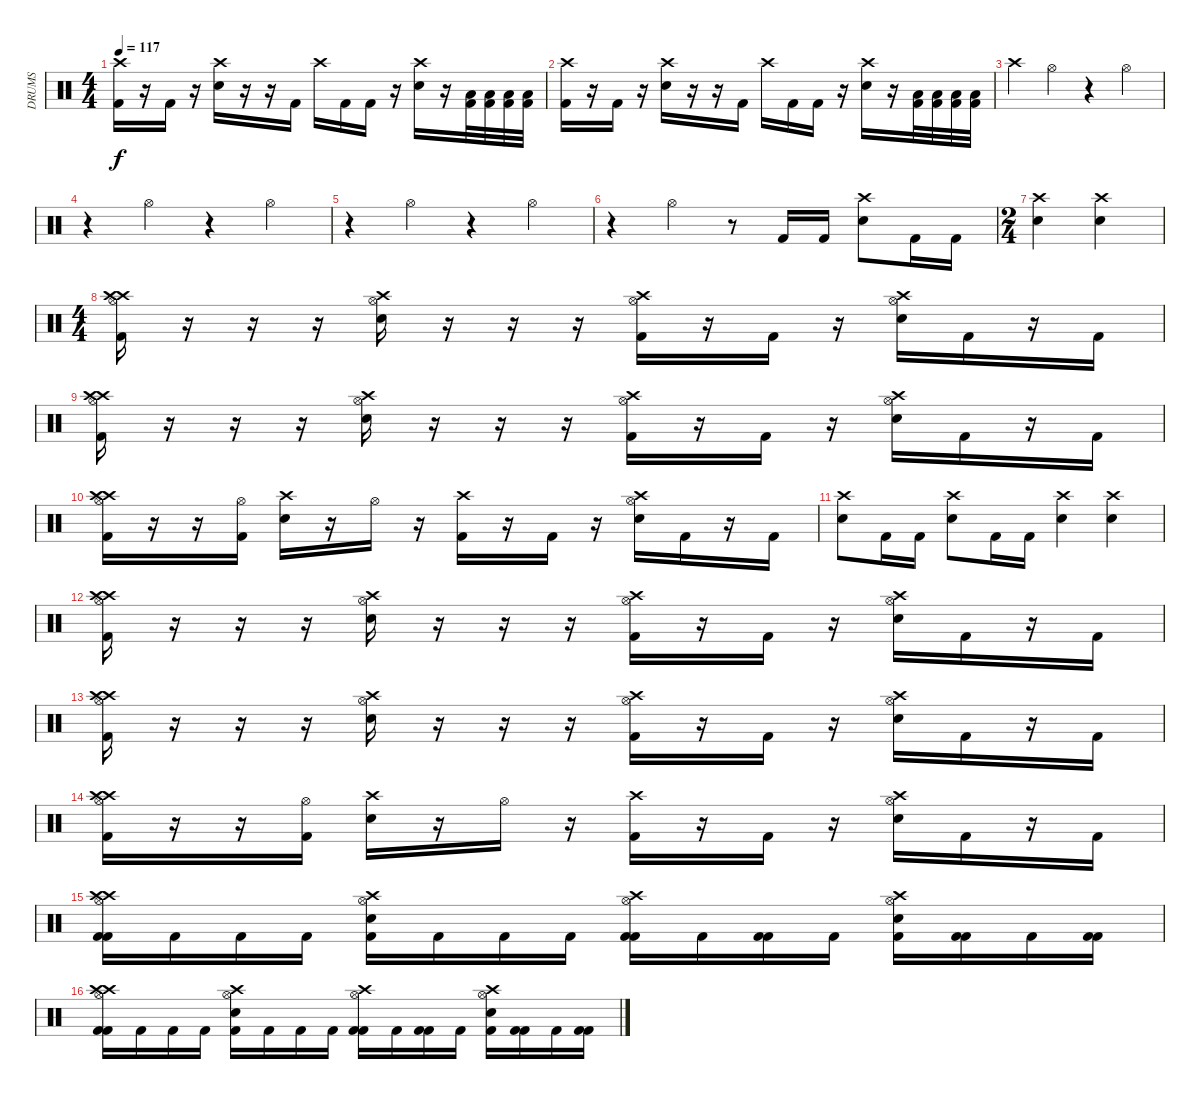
\track ("DRUMS" "DRUMS") {instrument percussion}
\staff {score}
\articulation defaults
\ts (4 4)
\tempo 117
\clef neutral
\ks c
("Crash high (hit)" "Kick (hit) 2").16{dy f} r.16 "Kick (hit) 2".16 r.16 ("Crash high (hit)" "Electric Snare (hit)").16 r.16 r.16 "Kick (hit) 2".16 "Crash high (hit)".16 "Kick (hit) 2".16 "Kick (hit) 2".16 r.16 ("Crash high (hit)" "Electric Snare (hit)").16 r.16 ("Low Tom (hit)" "Kick (hit) 2").32 ("Low Tom (hit)" "Kick (hit) 2").32 ("Low Tom (hit)" "Kick (hit) 2").32 ("Low Tom (hit)" "Kick (hit) 2").32 |
("Crash high (hit)" "Kick (hit) 2").16 r.16 "Kick (hit) 2".16 r.16 ("Crash high (hit)" "Electric Snare (hit)").16 r.16 r.16 "Kick (hit) 2".16 "Crash high (hit)".16 "Kick (hit) 2".16 "Kick (hit) 2".16 r.16 ("Crash high (hit)" "Electric Snare (hit)").16 r.16 ("Low Tom (hit)" "Kick (hit) 2").32 ("Low Tom (hit)" "Kick (hit) 2").32 ("Low Tom (hit)" "Kick (hit) 2").32 ("Low Tom (hit)" "Kick (hit) 2").32 |
"Crash high (hit)".4 "Hi-Hat (open)".4 r.4 "Hi-Hat (open)".4 |
r.4 "Hi-Hat (open)".4 r.4 "Hi-Hat (open)".4 |
r.4 "Hi-Hat (open)".4 r.4 "Hi-Hat (open)".4 |
r.4 "Hi-Hat (open)".4 r.8 "Kick (hit) 2".16 "Kick (hit) 2".16 ("Crash high (hit)" "Electric Snare (hit)").8 "Kick (hit) 2".16 "Kick (hit) 2".16 |
\ts (2 4)
("Crash high (hit)" "Electric Snare (hit)").4 ("Crash high (hit)" "Electric Snare (hit)").4 |
\ts (4 4)
("Crash high (hit)" "Kick (hit) 2" "Hi-Hat (open)" "Crash high (hit)").16 r.16 r.16 r.16 ("Crash high (hit)" "Electric Snare (hit)" "Hi-Hat (open)").16 r.16 r.16 r.16 ("Crash high (hit)" "Kick (hit) 2" "Hi-Hat (open)").16 r.16 "Kick (hit) 2".16 r.16 ("Crash high (hit)" "Electric Snare (hit)" "Hi-Hat (open)").16 "Kick (hit) 2".16 r.16 "Kick (hit) 2".16 |
("Crash high (hit)" "Kick (hit) 2" "Hi-Hat (open)" "Crash high (hit)").16 r.16 r.16 r.16 ("Crash high (hit)" "Electric Snare (hit)" "Hi-Hat (open)").16 r.16 r.16 r.16 ("Crash high (hit)" "Kick (hit) 2" "Hi-Hat (open)").16 r.16 "Kick (hit) 2".16 r.16 ("Crash high (hit)" "Electric Snare (hit)" "Hi-Hat (open)").16 "Kick (hit) 2".16 r.16 "Kick (hit) 2".16 |
("Crash high (hit)" "Kick (hit) 2" "Hi-Hat (open)" "Crash high (hit)").16 r.16 r.16 ("Kick (hit) 2" "Hi-Hat (open)").16 ("Crash high (hit)" "Electric Snare (hit)").16 r.16 "Hi-Hat (open)".16 r.16 ("Crash high (hit)" "Kick (hit) 2").16 r.16 "Kick (hit) 2".16 r.16 ("Crash high (hit)" "Electric Snare (hit)" "Hi-Hat (open)").16 "Kick (hit) 2".16 r.16 "Kick (hit) 2".16 |
("Electric Snare (hit)" "Crash high (hit)").8 "Kick (hit) 2".16 "Kick (hit) 2".16 ("Crash high (hit)" "Electric Snare (hit)").8 "Kick (hit) 2".16 "Kick (hit) 2".16 ("Crash high (hit)" "Electric Snare (hit)").4 ("Crash high (hit)" "Electric Snare (hit)").4 |
("Crash high (hit)" "Kick (hit) 2" "Hi-Hat (open)" "Crash high (hit)").16 r.16 r.16 r.16 ("Crash high (hit)" "Electric Snare (hit)" "Hi-Hat (open)").16 r.16 r.16 r.16 ("Crash high (hit)" "Kick (hit) 2" "Hi-Hat (open)").16 r.16 "Kick (hit) 2".16 r.16 ("Crash high (hit)" "Electric Snare (hit)" "Hi-Hat (open)").16 "Kick (hit) 2".16 r.16 "Kick (hit) 2".16 |
("Crash high (hit)" "Kick (hit) 2" "Hi-Hat (open)" "Crash high (hit)").16 r.16 r.16 r.16 ("Crash high (hit)" "Electric Snare (hit)" "Hi-Hat (open)").16 r.16 r.16 r.16 ("Crash high (hit)" "Kick (hit) 2" "Hi-Hat (open)").16 r.16 "Kick (hit) 2".16 r.16 ("Crash high (hit)" "Electric Snare (hit)" "Hi-Hat (open)").16 "Kick (hit) 2".16 r.16 "Kick (hit) 2".16 |
("Crash high (hit)" "Kick (hit) 2" "Hi-Hat (open)" "Crash high (hit)").16 r.16 r.16 ("Kick (hit) 2" "Hi-Hat (open)").16 ("Crash high (hit)" "Electric Snare (hit)").16 r.16 "Hi-Hat (open)".16 r.16 ("Crash high (hit)" "Kick (hit) 2").16 r.16 "Kick (hit) 2".16 r.16 ("Crash high (hit)" "Electric Snare (hit)" "Hi-Hat (open)").16 "Kick (hit) 2".16 r.16 "Kick (hit) 2".16 |
("Crash high (hit)" "Kick (hit) 2" "Hi-Hat (open)" "Crash high (hit)" "Kick (hit) 2").16 "Kick (hit) 2".16 "Kick (hit) 2".16 "Kick (hit) 2".16 ("Crash high (hit)" "Electric Snare (hit)" "Hi-Hat (open)" "Kick (hit) 2").16 "Kick (hit) 2".16 "Kick (hit) 2".16 "Kick (hit) 2".16 ("Crash high (hit)" "Kick (hit) 2" "Hi-Hat (open)" "Kick (hit) 2").16 "Kick (hit) 2".16 ("Kick (hit) 2" "Kick (hit) 2").16 "Kick (hit) 2".16 ("Crash high (hit)" "Electric Snare (hit)" "Hi-Hat (open)" "Kick (hit) 2").16 ("Kick (hit) 2" "Kick (hit) 2").16 "Kick (hit) 2".16 ("Kick (hit) 2" "Kick (hit) 2").16 |
("Crash high (hit)" "Kick (hit) 2" "Hi-Hat (open)" "Crash high (hit)" "Kick (hit) 2").16 "Kick (hit) 2".16 "Kick (hit) 2".16 "Kick (hit) 2".16 ("Crash high (hit)" "Electric Snare (hit)" "Hi-Hat (open)" "Kick (hit) 2").16 "Kick (hit) 2".16 "Kick (hit) 2".16 "Kick (hit) 2".16 ("Crash high (hit)" "Kick (hit) 2" "Hi-Hat (open)" "Kick (hit) 2").16 "Kick (hit) 2".16 ("Kick (hit) 2" "Kick (hit) 2").16 "Kick (hit) 2".16 ("Crash high (hit)" "Electric Snare (hit)" "Hi-Hat (open)" "Kick (hit) 2").16 ("Kick (hit) 2" "Kick (hit) 2").16 "Kick (hit) 2".16 ("Kick (hit) 2" "Kick (hit) 2").16
